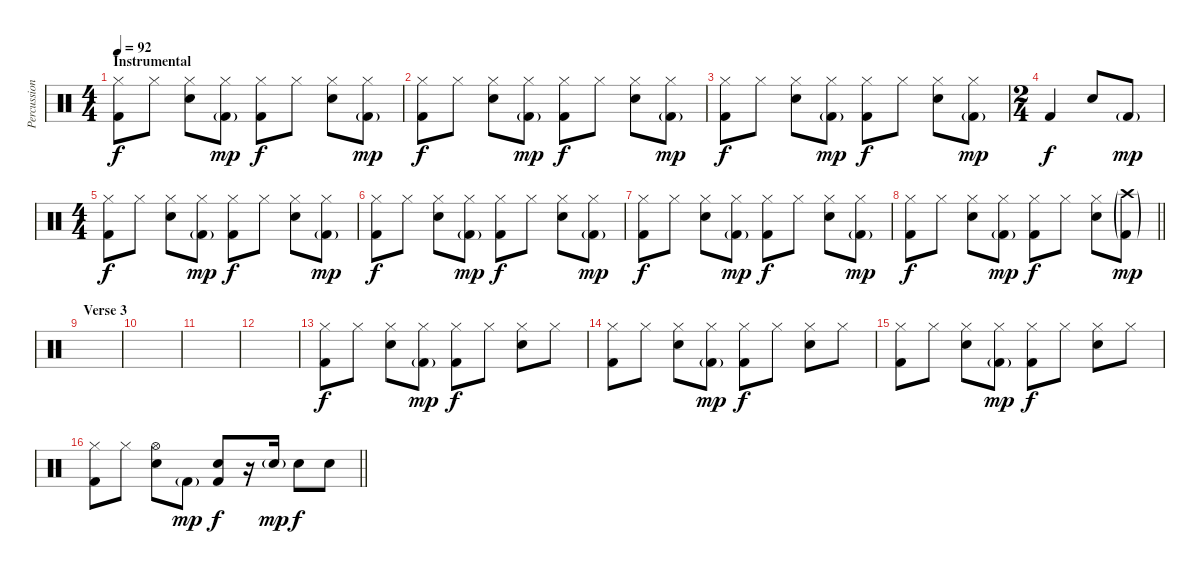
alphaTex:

\track ("Percussion" "Percussion") {instrument percussion}
\staff {score}
\articulation defaults
\ts (4 4)
\section ("" "Instrumental")
\tempo 92
\clef neutral
\ks c
("Hi-Hat (closed)" "Kick (hit) 2").8{dy f} "Hi-Hat (closed)".8 ("Hi-Hat (closed)" "Snare (hit) 2").8 ("Hi-Hat (closed)" "Kick (hit) 2"{g}).8{dy mp} ("Hi-Hat (closed)" "Kick (hit) 2").8{dy f} "Hi-Hat (closed)".8 ("Hi-Hat (closed)" "Snare (hit) 2").8 ("Hi-Hat (closed)" "Kick (hit) 2"{g}).8{dy mp} |
("Hi-Hat (closed)" "Kick (hit) 2").8{dy f} "Hi-Hat (closed)".8 ("Hi-Hat (closed)" "Snare (hit) 2").8 ("Hi-Hat (closed)" "Kick (hit) 2"{g}).8{dy mp} ("Hi-Hat (closed)" "Kick (hit) 2").8{dy f} "Hi-Hat (closed)".8 ("Hi-Hat (closed)" "Snare (hit) 2").8 ("Hi-Hat (closed)" "Kick (hit) 2"{g}).8{dy mp} |
("Hi-Hat (closed)" "Kick (hit) 2").8{dy f} "Hi-Hat (closed)".8 ("Hi-Hat (closed)" "Snare (hit) 2").8 ("Hi-Hat (closed)" "Kick (hit) 2"{g}).8{dy mp} ("Hi-Hat (closed)" "Kick (hit) 2").8{dy f} "Hi-Hat (closed)".8 ("Hi-Hat (closed)" "Snare (hit) 2").8 ("Hi-Hat (closed)" "Kick (hit) 2"{g}).8{dy mp} |
\ts (2 4)
"Kick (hit) 2".4{dy f} "Snare (hit) 2".8 "Kick (hit) 2"{g}.8{dy mp} |
\ts (4 4)
("Hi-Hat (closed)" "Kick (hit) 2").8{dy f} "Hi-Hat (closed)".8 ("Hi-Hat (closed)" "Snare (hit) 2").8 ("Hi-Hat (closed)" "Kick (hit) 2"{g}).8{dy mp} ("Hi-Hat (closed)" "Kick (hit) 2").8{dy f} "Hi-Hat (closed)".8 ("Hi-Hat (closed)" "Snare (hit) 2").8 ("Hi-Hat (closed)" "Kick (hit) 2"{g}).8{dy mp} |
("Hi-Hat (closed)" "Kick (hit) 2").8{dy f} "Hi-Hat (closed)".8 ("Hi-Hat (closed)" "Snare (hit) 2").8 ("Hi-Hat (closed)" "Kick (hit) 2"{g}).8{dy mp} ("Hi-Hat (closed)" "Kick (hit) 2").8{dy f} "Hi-Hat (closed)".8 ("Hi-Hat (closed)" "Snare (hit) 2").8 ("Hi-Hat (closed)" "Kick (hit) 2"{g}).8{dy mp} |
("Hi-Hat (closed)" "Kick (hit) 2").8{dy f} "Hi-Hat (closed)".8 ("Hi-Hat (closed)" "Snare (hit) 2").8 ("Hi-Hat (closed)" "Kick (hit) 2"{g}).8{dy mp} ("Hi-Hat (closed)" "Kick (hit) 2").8{dy f} "Hi-Hat (closed)".8 ("Hi-Hat (closed)" "Snare (hit) 2").8 ("Hi-Hat (closed)" "Kick (hit) 2"{g}).8{dy mp} |
\barLineRight lightlight
("Hi-Hat (closed)" "Kick (hit) 2").8{dy f} "Hi-Hat (closed)".8 ("Hi-Hat (closed)" "Snare (hit) 2").8 ("Hi-Hat (closed)" "Kick (hit) 2"{g}).8{dy mp} ("Hi-Hat (closed)" "Kick (hit) 2").8{dy f} "Hi-Hat (closed)".8 ("Hi-Hat (closed)" "Snare (hit) 2").8 ("Crash high (hit)"{g} "Kick (hit) 2"{g}).8{dy mp} |
\section ("" "Verse 3")
|
|
|
|
("Hi-Hat (closed)" "Kick (hit) 2").8{dy f} "Hi-Hat (closed)".8 ("Hi-Hat (closed)" "Snare (hit) 2").8 ("Hi-Hat (closed)" "Kick (hit) 2"{g}).8{dy mp} ("Hi-Hat (closed)" "Kick (hit) 2").8{dy f} "Hi-Hat (closed)".8 ("Hi-Hat (closed)" "Snare (hit) 2").8 "Hi-Hat (closed)".8 |
("Hi-Hat (closed)" "Kick (hit) 2").8 "Hi-Hat (closed)".8 ("Hi-Hat (closed)" "Snare (hit) 2").8 ("Hi-Hat (closed)" "Kick (hit) 2"{g}).8{dy mp} ("Hi-Hat (closed)" "Kick (hit) 2").8{dy f} "Hi-Hat (closed)".8 ("Hi-Hat (closed)" "Snare (hit) 2").8 "Hi-Hat (closed)".8 |
("Hi-Hat (closed)" "Kick (hit) 2").8 "Hi-Hat (closed)".8 ("Hi-Hat (closed)" "Snare (hit) 2").8 ("Hi-Hat (closed)" "Kick (hit) 2"{g}).8{dy mp} ("Hi-Hat (closed)" "Kick (hit) 2").8{dy f} "Hi-Hat (closed)".8 ("Hi-Hat (closed)" "Snare (hit) 2").8 "Hi-Hat (closed)".8 |
\barLineRight lightlight
("Hi-Hat (closed)" "Kick (hit) 2").8 "Hi-Hat (closed)".8 ("Hi-Hat (open)" "Snare (hit) 2").8 "Kick (hit) 2"{g}.8{dy mp} ("Snare (hit) 2" "Kick (hit) 2").8{dy f} r.16 "Snare (hit) 2"{g}.16{dy mp} "Snare (hit) 2".8{dy f} "Snare (hit) 2".8
